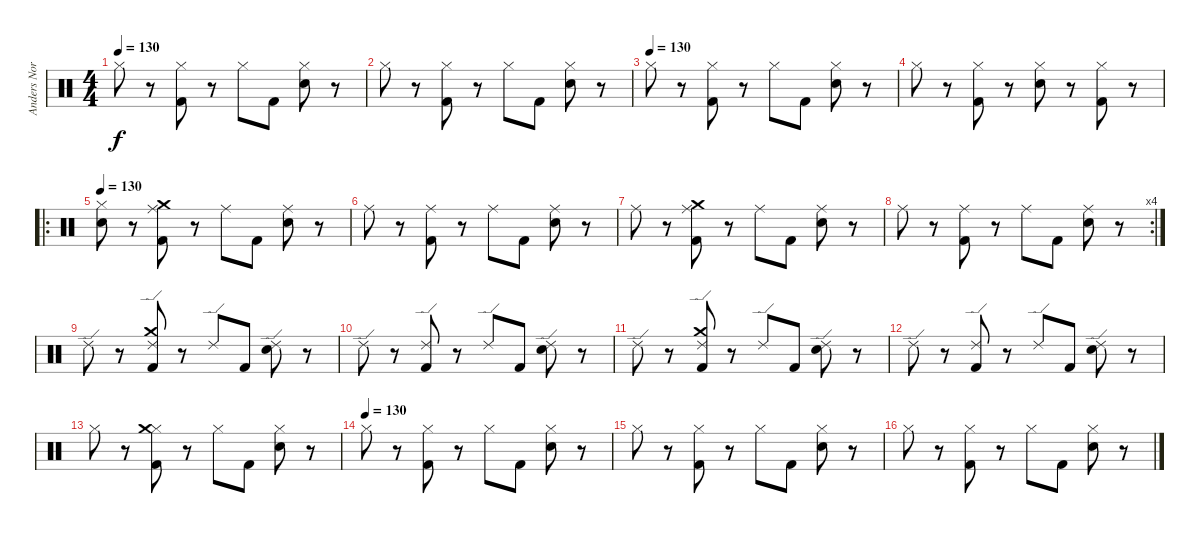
\track ("Anders Nordin" "Anders Nor") {instrument percussion}
\staff {score}
\articulation defaults
\ts (4 4)
\tempo 130
\clef neutral
\ks c "Hi-Hat (closed)".8{dy f}
r.8 ("Hi-Hat (closed)" "Kick (hit) 2").8 r.8 "Hi-Hat (closed)".8 "Kick (hit) 2".8 ("Hi-Hat (closed)" "Snare (hit) 2").8 r.8 |
"Hi-Hat (closed)".8 r.8 ("Hi-Hat (closed)" "Kick (hit) 2").8 r.8 "Hi-Hat (closed)".8 "Kick (hit) 2".8 ("Hi-Hat (closed)" "Snare (hit) 2").8 r.8 |
\tempo (130)
"Hi-Hat (closed)".8 r.8 ("Hi-Hat (closed)" "Kick (hit) 2").8 r.8 "Hi-Hat (closed)".8 "Kick (hit) 2".8 ("Hi-Hat (closed)" "Snare (hit) 2").8 r.8 |
"Hi-Hat (closed)".8 r.8 ("Hi-Hat (closed)" "Kick (hit) 2").8 r.8 ("Hi-Hat (closed)" "Snare (hit) 2").8 r.8 ("Hi-Hat (closed)" "Kick (hit) 2").8 r.8 |
\ro
\tempo 130
("Hi-Hat (closed)" "Snare (hit) 2").8 r.8 ("Ride (middle)" "Crash medium (hit)" "Kick (hit) 2").8 r.8 "Ride (middle)".8 "Kick (hit) 2".8 ("Ride (middle)" "Snare (hit) 2").8 r.8 |
"Ride (middle)".8 r.8 ("Ride (middle)" "Kick (hit) 2").8 r.8 "Ride (middle)".8 "Kick (hit) 2".8 ("Ride (middle)" "Snare (hit) 2").8 r.8 |
"Ride (middle)".8 r.8 ("Ride (middle)" "Crash medium (hit)" "Kick (hit) 2").8 r.8 "Ride (middle)".8 "Kick (hit) 2".8 ("Ride (middle)" "Snare (hit) 2").8 r.8 |
\rc 4 "Ride (middle)".8
r.8 ("Ride (middle)" "Kick (hit) 2").8 r.8 "Ride (middle)".8 "Kick (hit) 2".8 ("Ride (middle)" "Snare (hit) 2").8 r.8 |
"Ride (edge) 2".8 r.8 ("Ride (edge) 2" "Crash medium (hit)" "Kick (hit) 2").8 r.8 "Ride (edge) 2".8 "Kick (hit) 2".8 ("Ride (edge) 2" "Snare (hit) 2").8 r.8 |
"Ride (edge) 2".8 r.8 ("Ride (edge) 2" "Kick (hit) 2").8 r.8 "Ride (edge) 2".8 "Kick (hit) 2".8 ("Ride (edge) 2" "Snare (hit) 2").8 r.8 |
"Ride (edge) 2".8 r.8 ("Ride (edge) 2" "Crash medium (hit)" "Kick (hit) 2").8 r.8 "Ride (edge) 2".8 "Kick (hit) 2".8 ("Ride (edge) 2" "Snare (hit) 2").8 r.8 |
"Ride (edge) 2".8 r.8 ("Ride (edge) 2" "Kick (hit) 2").8 r.8 "Ride (edge) 2".8 "Kick (hit) 2".8 ("Ride (edge) 2" "Snare (hit) 2").8 r.8 |
"Hi-Hat (closed)".8 r.8 ("Hi-Hat (closed)" "Crash medium (hit)" "Kick (hit) 2").8 r.8 "Hi-Hat (closed)".8 "Kick (hit) 2".8 ("Hi-Hat (closed)" "Snare (hit) 2").8 r.8 |
\tempo (130)
"Hi-Hat (closed)".8 r.8 ("Hi-Hat (closed)" "Kick (hit) 2").8 r.8 "Hi-Hat (closed)".8 "Kick (hit) 2".8 ("Hi-Hat (closed)" "Snare (hit) 2").8 r.8 |
"Hi-Hat (closed)".8 r.8 ("Hi-Hat (closed)" "Kick (hit) 2").8 r.8 "Hi-Hat (closed)".8 "Kick (hit) 2".8 ("Hi-Hat (closed)" "Snare (hit) 2").8 r.8 |
"Hi-Hat (closed)".8 r.8 ("Hi-Hat (closed)" "Kick (hit) 2").8 r.8 "Hi-Hat (closed)".8 "Kick (hit) 2".8 ("Hi-Hat (closed)" "Snare (hit) 2").8 r.8
